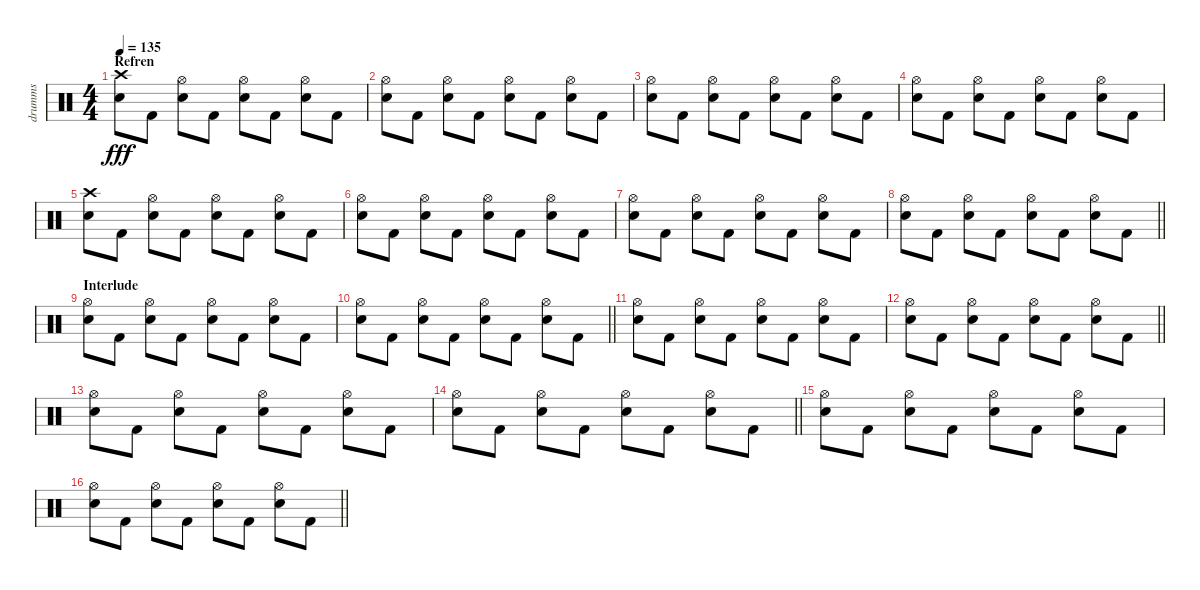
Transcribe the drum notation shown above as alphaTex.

\track ("drumms" "drumms") {instrument percussion}
\staff
\articulation defaults
\ts (4 4)
\section ("" "Refren")
\tempo 135
\clef neutral
\ks c
("Crash high (hit)" "Snare (hit) 2").8{dy fff} "Kick (hit) 2".8 ("Hi-Hat (open)" "Snare (hit) 2").8 "Kick (hit) 2".8 ("Hi-Hat (open)" "Snare (hit) 2").8 "Kick (hit) 2".8 ("Hi-Hat (open)" "Snare (hit) 2").8 "Kick (hit) 2".8 |
("Hi-Hat (open)" "Snare (hit) 2").8 "Kick (hit) 2".8 ("Hi-Hat (open)" "Snare (hit) 2").8 "Kick (hit) 2".8 ("Hi-Hat (open)" "Snare (hit) 2").8 "Kick (hit) 2".8 ("Hi-Hat (open)" "Snare (hit) 2").8 "Kick (hit) 2".8 |
("Hi-Hat (open)" "Snare (hit) 2").8 "Kick (hit) 2".8 ("Hi-Hat (open)" "Snare (hit) 2").8 "Kick (hit) 2".8 ("Hi-Hat (open)" "Snare (hit) 2").8 "Kick (hit) 2".8 ("Hi-Hat (open)" "Snare (hit) 2").8 "Kick (hit) 2".8 |
("Hi-Hat (open)" "Snare (hit) 2").8 "Kick (hit) 2".8 ("Hi-Hat (open)" "Snare (hit) 2").8 "Kick (hit) 2".8 ("Hi-Hat (open)" "Snare (hit) 2").8 "Kick (hit) 2".8 ("Hi-Hat (open)" "Snare (hit) 2").8 "Kick (hit) 2".8 |
("Crash high (hit)" "Snare (hit) 2").8 "Kick (hit) 2".8 ("Hi-Hat (open)" "Snare (hit) 2").8 "Kick (hit) 2".8 ("Hi-Hat (open)" "Snare (hit) 2").8 "Kick (hit) 2".8 ("Hi-Hat (open)" "Snare (hit) 2").8 "Kick (hit) 2".8 |
("Hi-Hat (open)" "Snare (hit) 2").8 "Kick (hit) 2".8 ("Hi-Hat (open)" "Snare (hit) 2").8 "Kick (hit) 2".8 ("Hi-Hat (open)" "Snare (hit) 2").8 "Kick (hit) 2".8 ("Hi-Hat (open)" "Snare (hit) 2").8 "Kick (hit) 2".8 |
("Hi-Hat (open)" "Snare (hit) 2").8 "Kick (hit) 2".8 ("Hi-Hat (open)" "Snare (hit) 2").8 "Kick (hit) 2".8 ("Hi-Hat (open)" "Snare (hit) 2").8 "Kick (hit) 2".8 ("Hi-Hat (open)" "Snare (hit) 2").8 "Kick (hit) 2".8 |
\barLineRight lightlight
("Hi-Hat (open)" "Snare (hit) 2").8 "Kick (hit) 2".8 ("Hi-Hat (open)" "Snare (hit) 2").8 "Kick (hit) 2".8 ("Hi-Hat (open)" "Snare (hit) 2").8 "Kick (hit) 2".8 ("Hi-Hat (open)" "Snare (hit) 2").8 "Kick (hit) 2".8 |
\section ("" "Interlude")
("Hi-Hat (open)" "Snare (hit) 2").8 "Kick (hit) 2".8 ("Hi-Hat (open)" "Snare (hit) 2").8 "Kick (hit) 2".8 ("Hi-Hat (open)" "Snare (hit) 2").8 "Kick (hit) 2".8 ("Hi-Hat (open)" "Snare (hit) 2").8 "Kick (hit) 2".8 |
\barLineRight lightlight
("Hi-Hat (open)" "Snare (hit) 2").8 "Kick (hit) 2".8 ("Hi-Hat (open)" "Snare (hit) 2").8 "Kick (hit) 2".8 ("Hi-Hat (open)" "Snare (hit) 2").8 "Kick (hit) 2".8 ("Hi-Hat (open)" "Snare (hit) 2").8 "Kick (hit) 2".8 |
("Hi-Hat (open)" "Snare (hit) 2").8 "Kick (hit) 2".8 ("Hi-Hat (open)" "Snare (hit) 2").8 "Kick (hit) 2".8 ("Hi-Hat (open)" "Snare (hit) 2").8 "Kick (hit) 2".8 ("Hi-Hat (open)" "Snare (hit) 2").8 "Kick (hit) 2".8 |
\barLineRight lightlight
("Hi-Hat (open)" "Snare (hit) 2").8 "Kick (hit) 2".8 ("Hi-Hat (open)" "Snare (hit) 2").8 "Kick (hit) 2".8 ("Hi-Hat (open)" "Snare (hit) 2").8 "Kick (hit) 2".8 ("Hi-Hat (open)" "Snare (hit) 2").8 "Kick (hit) 2".8 |
("Hi-Hat (open)" "Snare (hit) 2").8 "Kick (hit) 2".8 ("Hi-Hat (open)" "Snare (hit) 2").8 "Kick (hit) 2".8 ("Hi-Hat (open)" "Snare (hit) 2").8 "Kick (hit) 2".8 ("Hi-Hat (open)" "Snare (hit) 2").8 "Kick (hit) 2".8 |
\barLineRight lightlight
("Hi-Hat (open)" "Snare (hit) 2").8 "Kick (hit) 2".8 ("Hi-Hat (open)" "Snare (hit) 2").8 "Kick (hit) 2".8 ("Hi-Hat (open)" "Snare (hit) 2").8 "Kick (hit) 2".8 ("Hi-Hat (open)" "Snare (hit) 2").8 "Kick (hit) 2".8 |
("Hi-Hat (open)" "Snare (hit) 2").8 "Kick (hit) 2".8 ("Hi-Hat (open)" "Snare (hit) 2").8 "Kick (hit) 2".8 ("Hi-Hat (open)" "Snare (hit) 2").8 "Kick (hit) 2".8 ("Hi-Hat (open)" "Snare (hit) 2").8 "Kick (hit) 2".8 |
\barLineRight lightlight
("Hi-Hat (open)" "Snare (hit) 2").8 "Kick (hit) 2".8 ("Hi-Hat (open)" "Snare (hit) 2").8 "Kick (hit) 2".8 ("Hi-Hat (open)" "Snare (hit) 2").8 "Kick (hit) 2".8 ("Hi-Hat (open)" "Snare (hit) 2").8 "Kick (hit) 2".8
